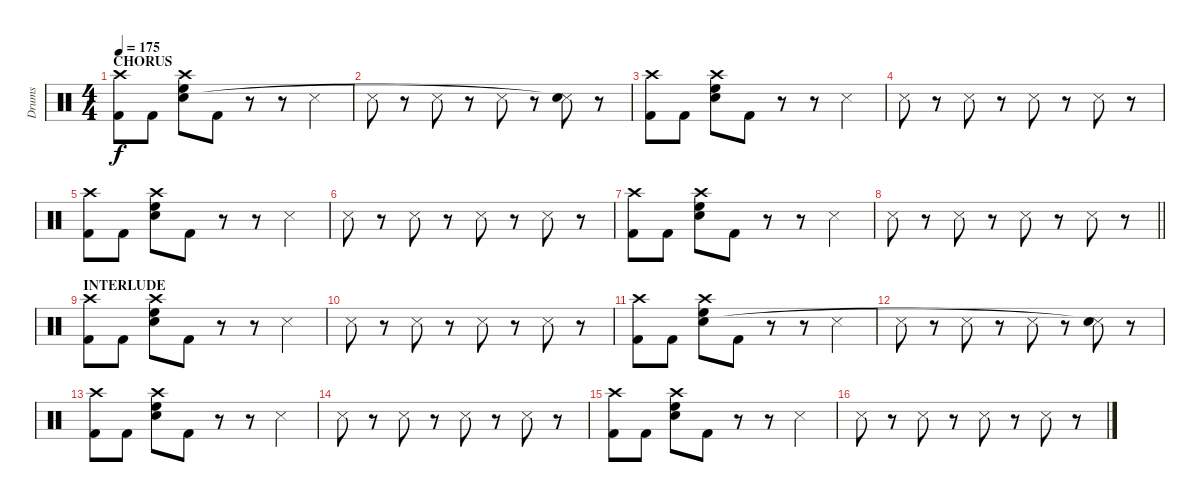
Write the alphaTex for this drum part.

\track ("Drums" "Drums") {instrument percussion}
\staff {score}
\articulation defaults
\ts (4 4)
\section ("" "CHORUS")
\tempo 175
\clef neutral
\ks c
("Kick (hit) 2" "Crash high (hit)").8{dy f} "Kick (hit) 2".8 ("High Floor Tom (hit)" "Electric Snare (hit)" "Crash high (hit)").8 "Kick (hit) 2".8 r.8 r.8 "Metronome (hit)".4 |
"Metronome (hit)".8 r.8 "Metronome (hit)".8 r.8 "Metronome (hit)".8 r.8 ("Metronome (hit)" "Snare (hit)"{t}).8 r.8 |
("Kick (hit) 2" "Crash high (hit)").8 "Kick (hit) 2".8 ("High Floor Tom (hit)" "Electric Snare (hit)" "Crash high (hit)").8 "Kick (hit) 2".8 r.8 r.8 "Metronome (hit)".4 |
"Metronome (hit)".8 r.8 "Metronome (hit)".8 r.8 "Metronome (hit)".8 r.8 "Metronome (hit)".8 r.8 |
("Kick (hit) 2" "Crash high (hit)").8 "Kick (hit) 2".8 ("High Floor Tom (hit)" "Electric Snare (hit)" "Crash high (hit)").8 "Kick (hit) 2".8 r.8 r.8 "Metronome (hit)".4 |
"Metronome (hit)".8 r.8 "Metronome (hit)".8 r.8 "Metronome (hit)".8 r.8 "Metronome (hit)".8 r.8 |
("Kick (hit) 2" "Crash high (hit)").8 "Kick (hit) 2".8 ("High Floor Tom (hit)" "Electric Snare (hit)" "Crash high (hit)").8 "Kick (hit) 2".8 r.8 r.8 "Metronome (hit)".4 |
\barLineRight lightlight "Metronome (hit)".8
r.8 "Metronome (hit)".8 r.8 "Metronome (hit)".8 r.8 "Metronome (hit)".8 r.8 |
\section ("" "INTERLUDE")
("Kick (hit) 2" "Crash high (hit)").8 "Kick (hit) 2".8 ("High Floor Tom (hit)" "Electric Snare (hit)" "Crash high (hit)").8 "Kick (hit) 2".8 r.8 r.8 "Metronome (hit)".4 |
"Metronome (hit)".8 r.8 "Metronome (hit)".8 r.8 "Metronome (hit)".8 r.8 "Metronome (hit)".8 r.8 |
("Kick (hit) 2" "Crash high (hit)").8 "Kick (hit) 2".8 ("High Floor Tom (hit)" "Electric Snare (hit)" "Crash high (hit)").8 "Kick (hit) 2".8 r.8 r.8 "Metronome (hit)".4 |
"Metronome (hit)".8 r.8 "Metronome (hit)".8 r.8 "Metronome (hit)".8 r.8 ("Metronome (hit)" "Snare (hit)"{t}).8 r.8 |
("Kick (hit) 2" "Crash high (hit)").8 "Kick (hit) 2".8 ("High Floor Tom (hit)" "Electric Snare (hit)" "Crash high (hit)").8 "Kick (hit) 2".8 r.8 r.8 "Metronome (hit)".4 |
"Metronome (hit)".8 r.8 "Metronome (hit)".8 r.8 "Metronome (hit)".8 r.8 "Metronome (hit)".8 r.8 |
("Kick (hit) 2" "Crash high (hit)").8 "Kick (hit) 2".8 ("High Floor Tom (hit)" "Electric Snare (hit)" "Crash high (hit)").8 "Kick (hit) 2".8 r.8 r.8 "Metronome (hit)".4 |
"Metronome (hit)".8 r.8 "Metronome (hit)".8 r.8 "Metronome (hit)".8 r.8 "Metronome (hit)".8 r.8
